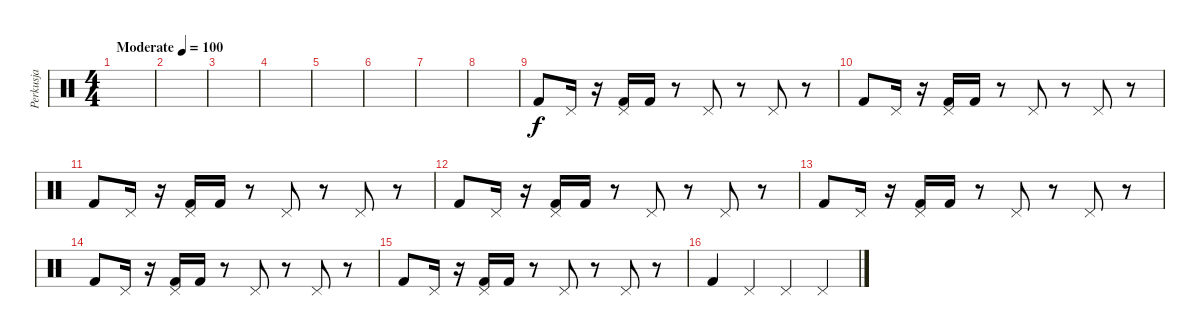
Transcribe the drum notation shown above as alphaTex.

\track ("Perkusja" "Perkusja") {instrument percussion}
\staff {score}
\articulation defaults
\ts (4 4)
\tempo (100 "Moderate")
\clef neutral
\ks c
|
|
|
|
|
|
|
|
"Kick (hit) 2".8 "Pedal Hi-Hat (hit)".16 r.16 ("Pedal Hi-Hat (hit)" "Kick (hit) 2").16 "Kick (hit) 2".16 r.8 "Pedal Hi-Hat (hit)".8 r.8 "Pedal Hi-Hat (hit)".8 r.8 |
"Kick (hit) 2".8 "Pedal Hi-Hat (hit)".16 r.16 ("Pedal Hi-Hat (hit)" "Kick (hit) 2").16 "Kick (hit) 2".16 r.8 "Pedal Hi-Hat (hit)".8 r.8 "Pedal Hi-Hat (hit)".8 r.8 |
"Kick (hit) 2".8 "Pedal Hi-Hat (hit)".16 r.16 ("Pedal Hi-Hat (hit)" "Kick (hit) 2").16 "Kick (hit) 2".16 r.8 "Pedal Hi-Hat (hit)".8 r.8 "Pedal Hi-Hat (hit)".8 r.8 |
"Kick (hit) 2".8 "Pedal Hi-Hat (hit)".16 r.16 ("Pedal Hi-Hat (hit)" "Kick (hit) 2").16 "Kick (hit) 2".16 r.8 "Pedal Hi-Hat (hit)".8 r.8 "Pedal Hi-Hat (hit)".8 r.8 |
"Kick (hit) 2".8 "Pedal Hi-Hat (hit)".16 r.16 ("Pedal Hi-Hat (hit)" "Kick (hit) 2").16 "Kick (hit) 2".16 r.8 "Pedal Hi-Hat (hit)".8 r.8 "Pedal Hi-Hat (hit)".8 r.8 |
"Kick (hit) 2".8 "Pedal Hi-Hat (hit)".16 r.16 ("Pedal Hi-Hat (hit)" "Kick (hit) 2").16 "Kick (hit) 2".16 r.8 "Pedal Hi-Hat (hit)".8 r.8 "Pedal Hi-Hat (hit)".8 r.8 |
"Kick (hit) 2".8 "Pedal Hi-Hat (hit)".16 r.16 ("Pedal Hi-Hat (hit)" "Kick (hit) 2").16 "Kick (hit) 2".16 r.8 "Pedal Hi-Hat (hit)".8 r.8 "Pedal Hi-Hat (hit)".8 r.8 |
"Kick (hit) 2".4 "Pedal Hi-Hat (hit)".4 "Pedal Hi-Hat (hit)".4 "Pedal Hi-Hat (hit)".4
